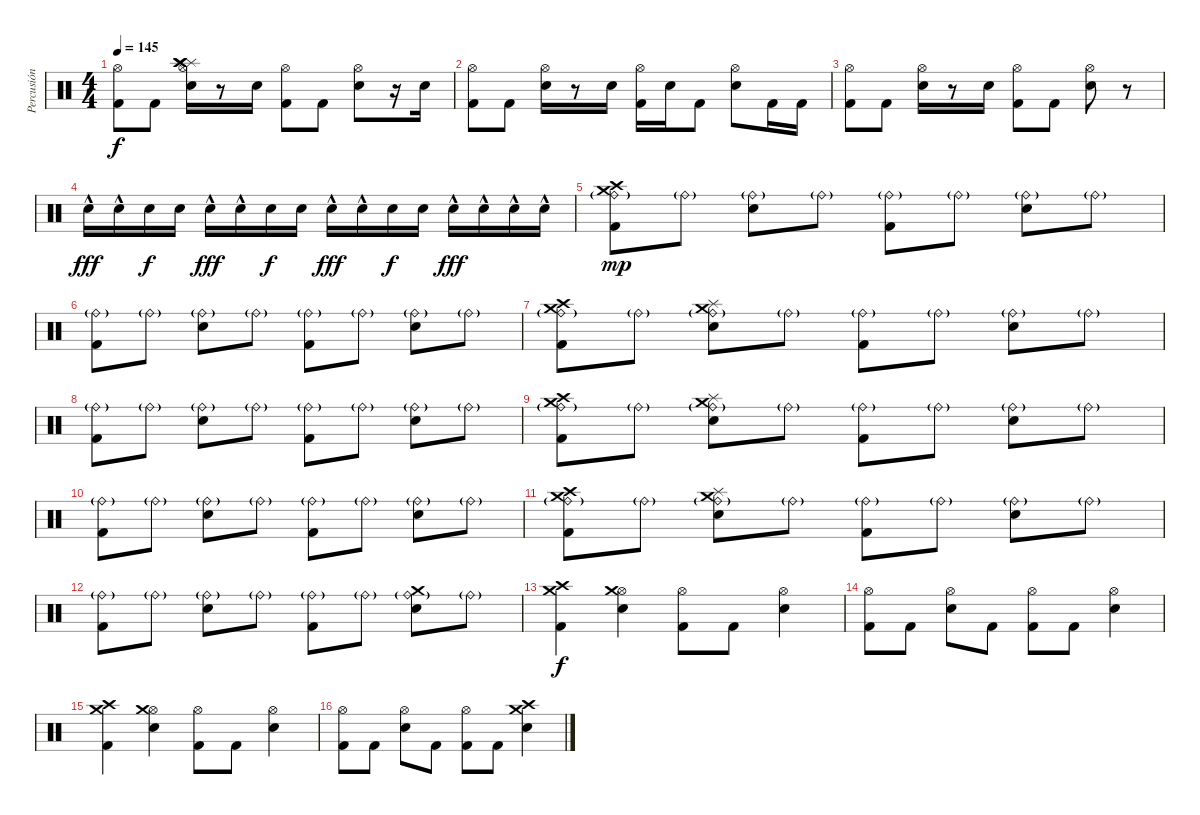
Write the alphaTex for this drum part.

\track ("Percusión" "Percusión") {instrument percussion}
\staff {score}
\articulation defaults
\ts (4 4)
\tempo 145
\clef neutral
\ks c
("Hi-Hat (open)" "Kick (hit) 2").8{dy f} "Kick (hit) 2".8 ("Hi-Hat (open)" "Electric Snare (hit)" "Splash (hit)" "Crash high (hit)" "Crash high (hit)").16 r.8 "Electric Snare (hit)".16 ("Hi-Hat (open)" "Kick (hit) 2").8 "Kick (hit) 2".8 ("Hi-Hat (open)" "Electric Snare (hit)").8 r.16 "Electric Snare (hit)".16 |
("Hi-Hat (open)" "Kick (hit) 2").8 "Kick (hit) 2".8 ("Hi-Hat (open)" "Electric Snare (hit)").16 r.8 "Electric Snare (hit)".16 ("Hi-Hat (open)" "Kick (hit) 2").16 "Electric Snare (hit)".16 "Kick (hit) 2".8 ("Hi-Hat (open)" "Electric Snare (hit)").8 "Kick (hit) 2".16 "Kick (hit) 2".16 |
("Hi-Hat (open)" "Kick (hit) 2").8 "Kick (hit) 2".8 ("Hi-Hat (open)" "Electric Snare (hit)").16 r.8 "Electric Snare (hit)".16 ("Hi-Hat (open)" "Kick (hit) 2").8 "Kick (hit) 2".8 ("Hi-Hat (open)" "Electric Snare (hit)").8 r.8 |
"Electric Snare (hit)"{hac}.16{dy fff} "Electric Snare (hit)"{hac}.16 "Electric Snare (hit)".16{dy f} "Electric Snare (hit)".16 "Electric Snare (hit)"{hac}.16{dy fff} "Electric Snare (hit)"{hac}.16 "Electric Snare (hit)".16{dy f} "Electric Snare (hit)".16 "Electric Snare (hit)"{hac}.16{dy fff} "Electric Snare (hit)"{hac}.16 "Electric Snare (hit)".16{dy f} "Electric Snare (hit)".16 "Electric Snare (hit)"{hac}.16{dy fff} "Electric Snare (hit)"{hac}.16 "Electric Snare (hit)"{hac}.16 "Electric Snare (hit)"{hac}.16 |
("Crash medium (hit)" "Crash high (hit)" "Kick (hit) 2" "Ride (bell)"{g}).8{dy mp} "Ride (bell)"{g}.8 ("Electric Snare (hit)" "Ride (bell)"{g}).8 "Ride (bell)"{g}.8 ("Kick (hit) 2" "Ride (bell)"{g}).8 "Ride (bell)"{g}.8 ("Electric Snare (hit)" "Ride (bell)"{g}).8 "Ride (bell)"{g}.8 |
("Kick (hit) 2" "Ride (bell)"{g}).8 "Ride (bell)"{g}.8 ("Electric Snare (hit)" "Ride (bell)"{g}).8 "Ride (bell)"{g}.8 ("Kick (hit) 2" "Ride (bell)"{g}).8 "Ride (bell)"{g}.8 ("Electric Snare (hit)" "Ride (bell)"{g}).8 "Ride (bell)"{g}.8 |
("Crash medium (hit)" "Crash high (hit)" "Kick (hit) 2" "Ride (bell)"{g}).8 "Ride (bell)"{g}.8 ("Splash (hit)" "Crash medium (hit)" "Electric Snare (hit)" "Ride (bell)"{g}).8 "Ride (bell)"{g}.8 ("Kick (hit) 2" "Ride (bell)"{g}).8 "Ride (bell)"{g}.8 ("Electric Snare (hit)" "Ride (bell)"{g}).8 "Ride (bell)"{g}.8 |
("Kick (hit) 2" "Ride (bell)"{g}).8 "Ride (bell)"{g}.8 ("Electric Snare (hit)" "Ride (bell)"{g}).8 "Ride (bell)"{g}.8 ("Kick (hit) 2" "Ride (bell)"{g}).8 "Ride (bell)"{g}.8 ("Electric Snare (hit)" "Ride (bell)"{g}).8 "Ride (bell)"{g}.8 |
("Crash medium (hit)" "Crash high (hit)" "Kick (hit) 2" "Ride (bell)"{g}).8 "Ride (bell)"{g}.8 ("Splash (hit)" "Crash medium (hit)" "Electric Snare (hit)" "Ride (bell)"{g}).8 "Ride (bell)"{g}.8 ("Kick (hit) 2" "Ride (bell)"{g}).8 "Ride (bell)"{g}.8 ("Electric Snare (hit)" "Ride (bell)"{g}).8 "Ride (bell)"{g}.8 |
("Kick (hit) 2" "Ride (bell)"{g}).8 "Ride (bell)"{g}.8 ("Electric Snare (hit)" "Ride (bell)"{g}).8 "Ride (bell)"{g}.8 ("Kick (hit) 2" "Ride (bell)"{g}).8 "Ride (bell)"{g}.8 ("Electric Snare (hit)" "Ride (bell)"{g}).8 "Ride (bell)"{g}.8 |
("Crash medium (hit)" "Crash high (hit)" "Kick (hit) 2" "Ride (bell)"{g}).8 "Ride (bell)"{g}.8 ("Splash (hit)" "Crash medium (hit)" "Electric Snare (hit)" "Ride (bell)"{g}).8 "Ride (bell)"{g}.8 ("Kick (hit) 2" "Ride (bell)"{g}).8 "Ride (bell)"{g}.8 ("Electric Snare (hit)" "Ride (bell)"{g}).8 "Ride (bell)"{g}.8 |
("Kick (hit) 2" "Ride (bell)"{g}).8 "Ride (bell)"{g}.8 ("Electric Snare (hit)" "Ride (bell)"{g}).8 "Ride (bell)"{g}.8 ("Kick (hit) 2" "Ride (bell)"{g}).8 "Ride (bell)"{g}.8 ("Crash medium (hit)" "Electric Snare (hit)" "Ride (bell)"{g}).8 "Ride (bell)"{g}.8 |
("Crash medium (hit)" "Crash high (hit)" "Kick (hit) 2").4{dy f} ("Hi-Hat (open)" "Crash medium (hit)" "Electric Snare (hit)").4 ("Hi-Hat (open)" "Kick (hit) 2").8 "Kick (hit) 2".8 ("Hi-Hat (open)" "Electric Snare (hit)").4 |
("Hi-Hat (open)" "Kick (hit) 2").8 "Kick (hit) 2".8 ("Hi-Hat (open)" "Electric Snare (hit)").8 "Kick (hit) 2".8 ("Hi-Hat (open)" "Kick (hit) 2").8 "Kick (hit) 2".8 ("Hi-Hat (open)" "Electric Snare (hit)").4 |
("Crash medium (hit)" "Crash high (hit)" "Kick (hit) 2").4 ("Hi-Hat (open)" "Crash medium (hit)" "Electric Snare (hit)").4 ("Hi-Hat (open)" "Kick (hit) 2").8 "Kick (hit) 2".8 ("Hi-Hat (open)" "Electric Snare (hit)").4 |
("Hi-Hat (open)" "Kick (hit) 2").8 "Kick (hit) 2".8 ("Hi-Hat (open)" "Electric Snare (hit)").8 "Kick (hit) 2".8 ("Hi-Hat (open)" "Kick (hit) 2").8 "Kick (hit) 2".8 ("Crash medium (hit)" "Crash high (hit)" "Electric Snare (hit)").4
